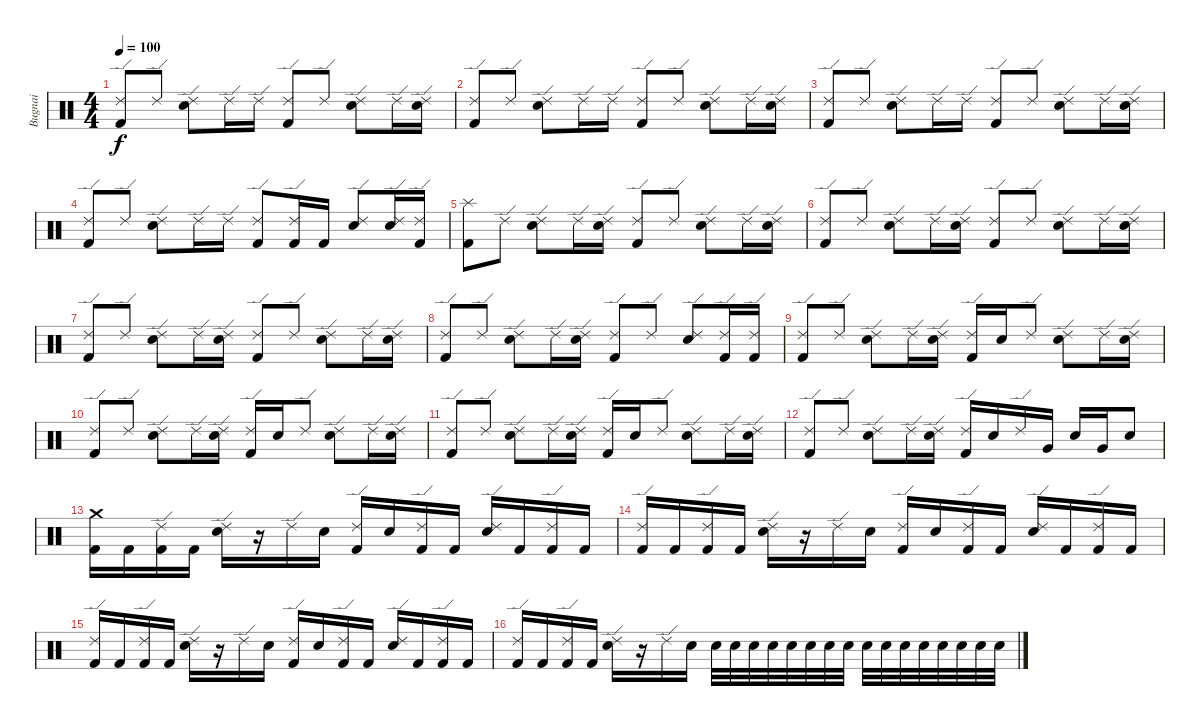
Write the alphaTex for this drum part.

\track ("Bugnai" "Bugnai") {instrument percussion}
\staff {score}
\articulation defaults
\ts (4 4)
\tempo 100
\clef neutral
\ks c
("Ride (edge) 2" "Kick (hit) 2").8{dy f} "Ride (edge) 2".8 ("Ride (edge) 2" "Electric Snare (hit)").8 "Ride (edge) 2".16 "Ride (edge) 2".16 ("Ride (edge) 2" "Kick (hit) 2").8 "Ride (edge) 2".8 ("Ride (edge) 2" "Electric Snare (hit)").8 "Ride (edge) 2".16 ("Ride (edge) 2" "Electric Snare (hit)").16 |
("Ride (edge) 2" "Kick (hit) 2").8 "Ride (edge) 2".8 ("Ride (edge) 2" "Electric Snare (hit)").8 "Ride (edge) 2".16 "Ride (edge) 2".16 ("Ride (edge) 2" "Kick (hit) 2").8 "Ride (edge) 2".8 ("Ride (edge) 2" "Electric Snare (hit)").8 "Ride (edge) 2".16 ("Ride (edge) 2" "Electric Snare (hit)").16 |
("Ride (edge) 2" "Kick (hit) 2").8 "Ride (edge) 2".8 ("Ride (edge) 2" "Electric Snare (hit)").8 "Ride (edge) 2".16 "Ride (edge) 2".16 ("Ride (edge) 2" "Kick (hit) 2").8 "Ride (edge) 2".8 ("Ride (edge) 2" "Electric Snare (hit)").8 "Ride (edge) 2".16 ("Ride (edge) 2" "Electric Snare (hit)").16 |
("Ride (edge) 2" "Kick (hit) 2").8 "Ride (edge) 2".8 ("Ride (edge) 2" "Electric Snare (hit)").8 "Ride (edge) 2".16 "Ride (edge) 2".16 ("Ride (edge) 2" "Kick (hit) 2").8 ("Ride (edge) 2" "Kick (hit) 2").16 "Kick (hit) 2".16 ("Ride (edge) 2" "Electric Snare (hit)").8 ("Ride (edge) 2" "Electric Snare (hit)").16 ("Ride (edge) 2" "Kick (hit) 2").16 |
("Splash (hit)" "Kick (hit) 2").8 "Ride (edge) 2".8 ("Ride (edge) 2" "Electric Snare (hit)").8 "Ride (edge) 2".16 ("Ride (edge) 2" "Electric Snare (hit)").16 ("Ride (edge) 2" "Kick (hit) 2").8 "Ride (edge) 2".8 ("Ride (edge) 2" "Electric Snare (hit)").8 "Ride (edge) 2".16 ("Ride (edge) 2" "Electric Snare (hit)").16 |
("Ride (edge) 2" "Kick (hit) 2").8 "Ride (edge) 2".8 ("Ride (edge) 2" "Electric Snare (hit)").8 "Ride (edge) 2".16 ("Ride (edge) 2" "Electric Snare (hit)").16 ("Ride (edge) 2" "Kick (hit) 2").8 "Ride (edge) 2".8 ("Ride (edge) 2" "Electric Snare (hit)").8 "Ride (edge) 2".16 ("Ride (edge) 2" "Electric Snare (hit)").16 |
("Ride (edge) 2" "Kick (hit) 2").8 "Ride (edge) 2".8 ("Ride (edge) 2" "Electric Snare (hit)").8 "Ride (edge) 2".16 ("Ride (edge) 2" "Electric Snare (hit)").16 ("Ride (edge) 2" "Kick (hit) 2").8 "Ride (edge) 2".8 ("Ride (edge) 2" "Electric Snare (hit)").8 "Ride (edge) 2".16 ("Ride (edge) 2" "Electric Snare (hit)").16 |
("Ride (edge) 2" "Kick (hit) 2").8 "Ride (edge) 2".8 ("Ride (edge) 2" "Electric Snare (hit)").8 "Ride (edge) 2".16 ("Ride (edge) 2" "Electric Snare (hit)").16 ("Ride (edge) 2" "Kick (hit) 2").8 "Ride (edge) 2".8 ("Ride (edge) 2" "Electric Snare (hit)").8 ("Ride (edge) 2" "Kick (hit) 2").16 ("Ride (edge) 2" "Kick (hit) 2").16 |
("Ride (edge) 2" "Kick (hit) 2").8 "Ride (edge) 2".8 ("Ride (edge) 2" "Electric Snare (hit)").8 "Ride (edge) 2".16 ("Ride (edge) 2" "Electric Snare (hit)").16 ("Ride (edge) 2" "Kick (hit) 2").16 "Electric Snare (hit)".16 "Ride (edge) 2".8 ("Ride (edge) 2" "Electric Snare (hit)").8 "Ride (edge) 2".16 ("Ride (edge) 2" "Electric Snare (hit)").16 |
("Ride (edge) 2" "Kick (hit) 2").8 "Ride (edge) 2".8 ("Ride (edge) 2" "Electric Snare (hit)").8 "Ride (edge) 2".16 ("Ride (edge) 2" "Electric Snare (hit)").16 ("Ride (edge) 2" "Kick (hit) 2").16 "Electric Snare (hit)".16 "Ride (edge) 2".8 ("Ride (edge) 2" "Electric Snare (hit)").8 "Ride (edge) 2".16 ("Ride (edge) 2" "Electric Snare (hit)").16 |
("Ride (edge) 2" "Kick (hit) 2").8 "Ride (edge) 2".8 ("Ride (edge) 2" "Electric Snare (hit)").8 "Ride (edge) 2".16 ("Ride (edge) 2" "Electric Snare (hit)").16 ("Ride (edge) 2" "Kick (hit) 2").16 "Electric Snare (hit)".16 "Ride (edge) 2".8 ("Ride (edge) 2" "Electric Snare (hit)").8 "Ride (edge) 2".16 ("Ride (edge) 2" "Electric Snare (hit)").16 |
("Ride (edge) 2" "Kick (hit) 2").8 "Ride (edge) 2".8 ("Ride (edge) 2" "Electric Snare (hit)").8 "Ride (edge) 2".16 ("Ride (edge) 2" "Electric Snare (hit)").16 ("Ride (edge) 2" "Kick (hit) 2").16 "Electric Snare (hit)".16 "Ride (edge) 2".16 "Very Low Tom (hit)".16 "Electric Snare (hit)".16 "Very Low Tom (hit)".16 "Electric Snare (hit)".8 |
("Crash medium (hit)" "Kick (hit) 2").16 "Kick (hit) 2".16 ("Ride (edge) 2" "Kick (hit) 2").16 "Kick (hit) 2".16 ("Ride (edge) 2" "Electric Snare (hit)").16 r.16 "Ride (edge) 2".16 "Electric Snare (hit)".16 ("Ride (edge) 2" "Kick (hit) 2").16 "Electric Snare (hit)".16 ("Ride (edge) 2" "Kick (hit) 2").16 "Kick (hit) 2".16 ("Ride (edge) 2" "Electric Snare (hit)").16 "Kick (hit) 2".16 ("Ride (edge) 2" "Kick (hit) 2").16 "Kick (hit) 2".16 |
("Ride (edge) 2" "Kick (hit) 2").16 "Kick (hit) 2".16 ("Ride (edge) 2" "Kick (hit) 2").16 "Kick (hit) 2".16 ("Ride (edge) 2" "Electric Snare (hit)").16 r.16 "Ride (edge) 2".16 "Electric Snare (hit)".16 ("Ride (edge) 2" "Kick (hit) 2").16 "Electric Snare (hit)".16 ("Ride (edge) 2" "Kick (hit) 2").16 "Kick (hit) 2".16 ("Ride (edge) 2" "Electric Snare (hit)").16 "Kick (hit) 2".16 ("Ride (edge) 2" "Kick (hit) 2").16 "Kick (hit) 2".16 |
("Ride (edge) 2" "Kick (hit) 2").16 "Kick (hit) 2".16 ("Ride (edge) 2" "Kick (hit) 2").16 "Kick (hit) 2".16 ("Ride (edge) 2" "Electric Snare (hit)").16 r.16 "Ride (edge) 2".16 "Electric Snare (hit)".16 ("Ride (edge) 2" "Kick (hit) 2").16 "Electric Snare (hit)".16 ("Ride (edge) 2" "Kick (hit) 2").16 "Kick (hit) 2".16 ("Ride (edge) 2" "Electric Snare (hit)").16 "Kick (hit) 2".16 ("Ride (edge) 2" "Kick (hit) 2").16 "Kick (hit) 2".16 |
("Ride (edge) 2" "Kick (hit) 2").16 "Kick (hit) 2".16 ("Ride (edge) 2" "Kick (hit) 2").16 "Kick (hit) 2".16 ("Ride (edge) 2" "Electric Snare (hit)").16 r.16 "Ride (edge) 2".16 "Electric Snare (hit)".16 "Electric Snare (hit)".32 "Electric Snare (hit)".32 "Electric Snare (hit)".32 "Electric Snare (hit)".32 "Electric Snare (hit)".32 "Electric Snare (hit)".32 "Electric Snare (hit)".32 "Electric Snare (hit)".32 "Electric Snare (hit)".32 "Electric Snare (hit)".32 "Electric Snare (hit)".32 "Electric Snare (hit)".32 "Electric Snare (hit)".32 "Electric Snare (hit)".32 "Electric Snare (hit)".32 "Electric Snare (hit)".32
